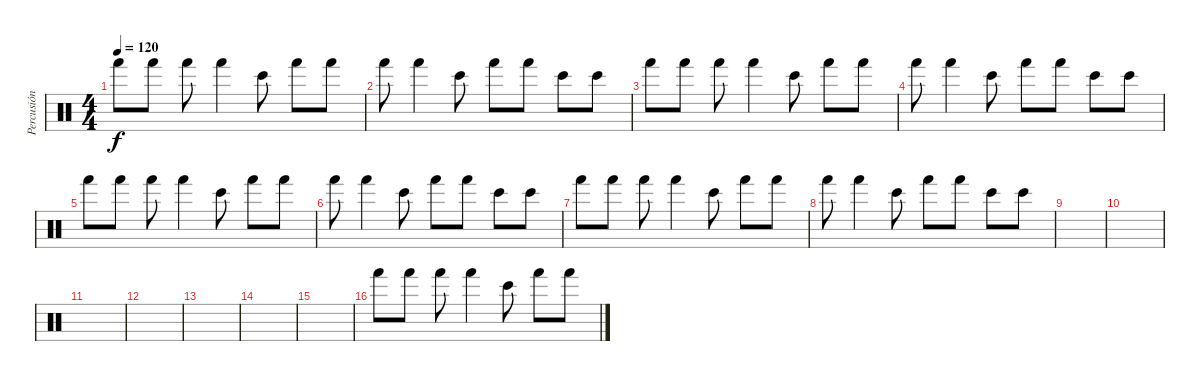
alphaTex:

\track ("Percusión" "Percusión") {instrument percussion}
\staff
\articulation defaults
\ts (4 4)
\tempo 120
\clef neutral
\ks c "Hand (hit)".8{dy f} "Hand (hit)".8 "Hand (hit)".8 "Hand (hit)".4 "Bongo High (hit)".8 "Hand (hit)".8 "Hand (hit)".8
|
"Hand (hit)".8 "Hand (hit)".4 "Bongo High (hit)".8 "Hand (hit)".8 "Hand (hit)".8 "Bongo High (hit)".8 "Bongo High (hit)".8 |
"Hand (hit)".8 "Hand (hit)".8 "Hand (hit)".8 "Hand (hit)".4 "Bongo High (hit)".8 "Hand (hit)".8 "Hand (hit)".8 |
"Hand (hit)".8 "Hand (hit)".4 "Bongo High (hit)".8 "Hand (hit)".8 "Hand (hit)".8 "Bongo High (hit)".8 "Bongo High (hit)".8 |
"Hand (hit)".8 "Hand (hit)".8 "Hand (hit)".8 "Hand (hit)".4 "Bongo High (hit)".8 "Hand (hit)".8 "Hand (hit)".8 |
"Hand (hit)".8 "Hand (hit)".4 "Bongo High (hit)".8 "Hand (hit)".8 "Hand (hit)".8 "Bongo High (hit)".8 "Bongo High (hit)".8 |
"Hand (hit)".8 "Hand (hit)".8 "Hand (hit)".8 "Hand (hit)".4 "Bongo High (hit)".8 "Hand (hit)".8 "Hand (hit)".8 |
"Hand (hit)".8 "Hand (hit)".4 "Bongo High (hit)".8 "Hand (hit)".8 "Hand (hit)".8 "Bongo High (hit)".8 "Bongo High (hit)".8 |
|
|
|
|
|
|
|
"Hand (hit)".8 "Hand (hit)".8 "Hand (hit)".8 "Hand (hit)".4 "Bongo High (hit)".8 "Hand (hit)".8 "Hand (hit)".8
